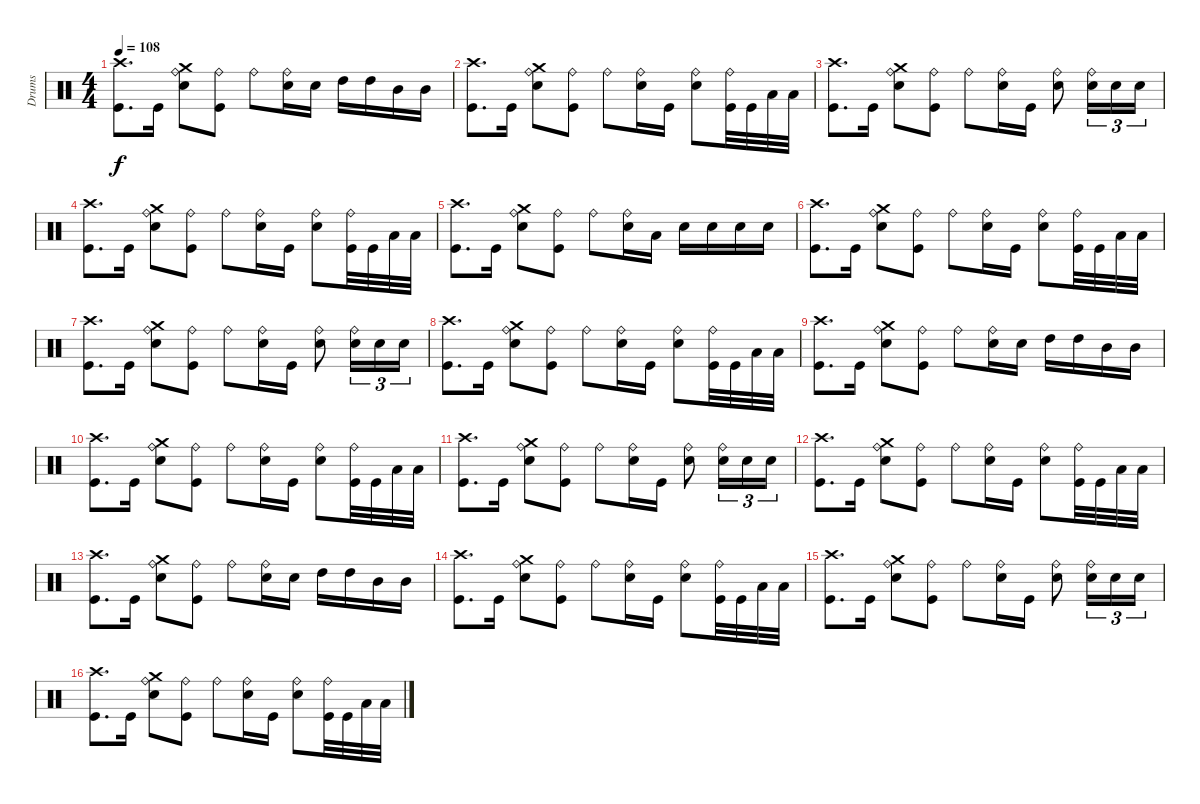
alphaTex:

\track ("Drums" "Drums") {instrument percussion}
\staff {score}
\articulation defaults
\ts (4 4)
\tempo 108
\clef neutral
\ks c
("Crash high (hit)" "Kick (hit)").8{d dy f} "Kick (hit)".16 ("Crash medium (hit)" "Ride (bell)" "Electric Snare (hit)").8 ("Ride (bell)" "Kick (hit)").8 "Ride (bell)".8 ("Ride (bell)" "Electric Snare (hit)").16 "Electric Snare (hit)".16 "High Tom (hit)".16 "High Tom (hit)".16 "Mid Tom (hit)".16 "Mid Tom (hit)".16 |
("Crash high (hit)" "Kick (hit)").8{d} "Kick (hit)".16 ("Crash medium (hit)" "Ride (bell)" "Electric Snare (hit)").8 ("Ride (bell)" "Kick (hit)").8 "Ride (bell)".8 ("Ride (bell)" "Electric Snare (hit)").16 "Kick (hit)".16 ("Ride (bell)" "Electric Snare (hit)").8 ("Ride (bell)" "Kick (hit)").32 "Kick (hit)".32 "Low Tom (hit)".32 "Low Tom (hit)".32 |
("Crash high (hit)" "Kick (hit)").8{d} "Kick (hit)".16 ("Crash medium (hit)" "Ride (bell)" "Electric Snare (hit)").8 ("Ride (bell)" "Kick (hit)").8 "Ride (bell)".8 ("Ride (bell)" "Electric Snare (hit)").16 "Kick (hit)".16 ("Ride (bell)" "Electric Snare (hit)").8 ("Ride (bell)" "Electric Snare (hit)").16{tu (3 2)} "Electric Snare (hit)".16{tu (3 2)} "Electric Snare (hit)".16{tu (3 2)} |
("Crash high (hit)" "Kick (hit)").8{d} "Kick (hit)".16 ("Crash medium (hit)" "Ride (bell)" "Electric Snare (hit)").8 ("Ride (bell)" "Kick (hit)").8 "Ride (bell)".8 ("Ride (bell)" "Electric Snare (hit)").16 "Kick (hit)".16 ("Ride (bell)" "Electric Snare (hit)").8 ("Ride (bell)" "Kick (hit)").32 "Kick (hit)".32 "Low Tom (hit)".32 "Low Tom (hit)".32 |
("Crash high (hit)" "Kick (hit)").8{d} "Kick (hit)".16 ("Crash medium (hit)" "Ride (bell)" "Electric Snare (hit)").8 ("Ride (bell)" "Kick (hit)").8 "Ride (bell)".8 ("Ride (bell)" "Electric Snare (hit)").16 "Low Tom (hit)".16 "Electric Snare (hit)".16 "Electric Snare (hit)".16 "Electric Snare (hit)".16 "Electric Snare (hit)".16 |
("Crash high (hit)" "Kick (hit)").8{d} "Kick (hit)".16 ("Crash medium (hit)" "Ride (bell)" "Electric Snare (hit)").8 ("Ride (bell)" "Kick (hit)").8 "Ride (bell)".8 ("Ride (bell)" "Electric Snare (hit)").16 "Kick (hit)".16 ("Ride (bell)" "Electric Snare (hit)").8 ("Ride (bell)" "Kick (hit)").32 "Kick (hit)".32 "Low Tom (hit)".32 "Low Tom (hit)".32 |
("Crash high (hit)" "Kick (hit)").8{d} "Kick (hit)".16 ("Crash medium (hit)" "Ride (bell)" "Electric Snare (hit)").8 ("Ride (bell)" "Kick (hit)").8 "Ride (bell)".8 ("Ride (bell)" "Electric Snare (hit)").16 "Kick (hit)".16 ("Ride (bell)" "Electric Snare (hit)").8 ("Ride (bell)" "Electric Snare (hit)").16{tu (3 2)} "Electric Snare (hit)".16{tu (3 2)} "Electric Snare (hit)".16{tu (3 2)} |
("Crash high (hit)" "Kick (hit)").8{d} "Kick (hit)".16 ("Crash medium (hit)" "Ride (bell)" "Electric Snare (hit)").8 ("Ride (bell)" "Kick (hit)").8 "Ride (bell)".8 ("Ride (bell)" "Electric Snare (hit)").16 "Kick (hit)".16 ("Ride (bell)" "Electric Snare (hit)").8 ("Ride (bell)" "Kick (hit)").32 "Kick (hit)".32 "Low Tom (hit)".32 "Low Tom (hit)".32 |
("Crash high (hit)" "Kick (hit)").8{d} "Kick (hit)".16 ("Crash medium (hit)" "Ride (bell)" "Electric Snare (hit)").8 ("Ride (bell)" "Kick (hit)").8 "Ride (bell)".8 ("Ride (bell)" "Electric Snare (hit)").16 "Electric Snare (hit)".16 "High Tom (hit)".16 "High Tom (hit)".16 "Mid Tom (hit)".16 "Mid Tom (hit)".16 |
("Crash high (hit)" "Kick (hit)").8{d} "Kick (hit)".16 ("Crash medium (hit)" "Ride (bell)" "Electric Snare (hit)").8 ("Ride (bell)" "Kick (hit)").8 "Ride (bell)".8 ("Ride (bell)" "Electric Snare (hit)").16 "Kick (hit)".16 ("Ride (bell)" "Electric Snare (hit)").8 ("Ride (bell)" "Kick (hit)").32 "Kick (hit)".32 "Low Tom (hit)".32 "Low Tom (hit)".32 |
("Crash high (hit)" "Kick (hit)").8{d} "Kick (hit)".16 ("Crash medium (hit)" "Ride (bell)" "Electric Snare (hit)").8 ("Ride (bell)" "Kick (hit)").8 "Ride (bell)".8 ("Ride (bell)" "Electric Snare (hit)").16 "Kick (hit)".16 ("Ride (bell)" "Electric Snare (hit)").8 ("Ride (bell)" "Electric Snare (hit)").16{tu (3 2)} "Electric Snare (hit)".16{tu (3 2)} "Electric Snare (hit)".16{tu (3 2)} |
("Crash high (hit)" "Kick (hit)").8{d} "Kick (hit)".16 ("Crash medium (hit)" "Ride (bell)" "Electric Snare (hit)").8 ("Ride (bell)" "Kick (hit)").8 "Ride (bell)".8 ("Ride (bell)" "Electric Snare (hit)").16 "Kick (hit)".16 ("Ride (bell)" "Electric Snare (hit)").8 ("Ride (bell)" "Kick (hit)").32 "Kick (hit)".32 "Low Tom (hit)".32 "Low Tom (hit)".32 |
("Crash high (hit)" "Kick (hit)").8{d} "Kick (hit)".16 ("Crash medium (hit)" "Ride (bell)" "Electric Snare (hit)").8 ("Ride (bell)" "Kick (hit)").8 "Ride (bell)".8 ("Ride (bell)" "Electric Snare (hit)").16 "Electric Snare (hit)".16 "High Tom (hit)".16 "High Tom (hit)".16 "Mid Tom (hit)".16 "Mid Tom (hit)".16 |
("Crash high (hit)" "Kick (hit)").8{d} "Kick (hit)".16 ("Crash medium (hit)" "Ride (bell)" "Electric Snare (hit)").8 ("Ride (bell)" "Kick (hit)").8 "Ride (bell)".8 ("Ride (bell)" "Electric Snare (hit)").16 "Kick (hit)".16 ("Ride (bell)" "Electric Snare (hit)").8 ("Ride (bell)" "Kick (hit)").32 "Kick (hit)".32 "Low Tom (hit)".32 "Low Tom (hit)".32 |
("Crash high (hit)" "Kick (hit)").8{d} "Kick (hit)".16 ("Crash medium (hit)" "Ride (bell)" "Electric Snare (hit)").8 ("Ride (bell)" "Kick (hit)").8 "Ride (bell)".8 ("Ride (bell)" "Electric Snare (hit)").16 "Kick (hit)".16 ("Ride (bell)" "Electric Snare (hit)").8 ("Ride (bell)" "Electric Snare (hit)").16{tu (3 2)} "Electric Snare (hit)".16{tu (3 2)} "Electric Snare (hit)".16{tu (3 2)} |
("Crash high (hit)" "Kick (hit)").8{d} "Kick (hit)".16 ("Crash medium (hit)" "Ride (bell)" "Electric Snare (hit)").8 ("Ride (bell)" "Kick (hit)").8 "Ride (bell)".8 ("Ride (bell)" "Electric Snare (hit)").16 "Kick (hit)".16 ("Ride (bell)" "Electric Snare (hit)").8 ("Ride (bell)" "Kick (hit)").32 "Kick (hit)".32 "Low Tom (hit)".32 "Low Tom (hit)".32
